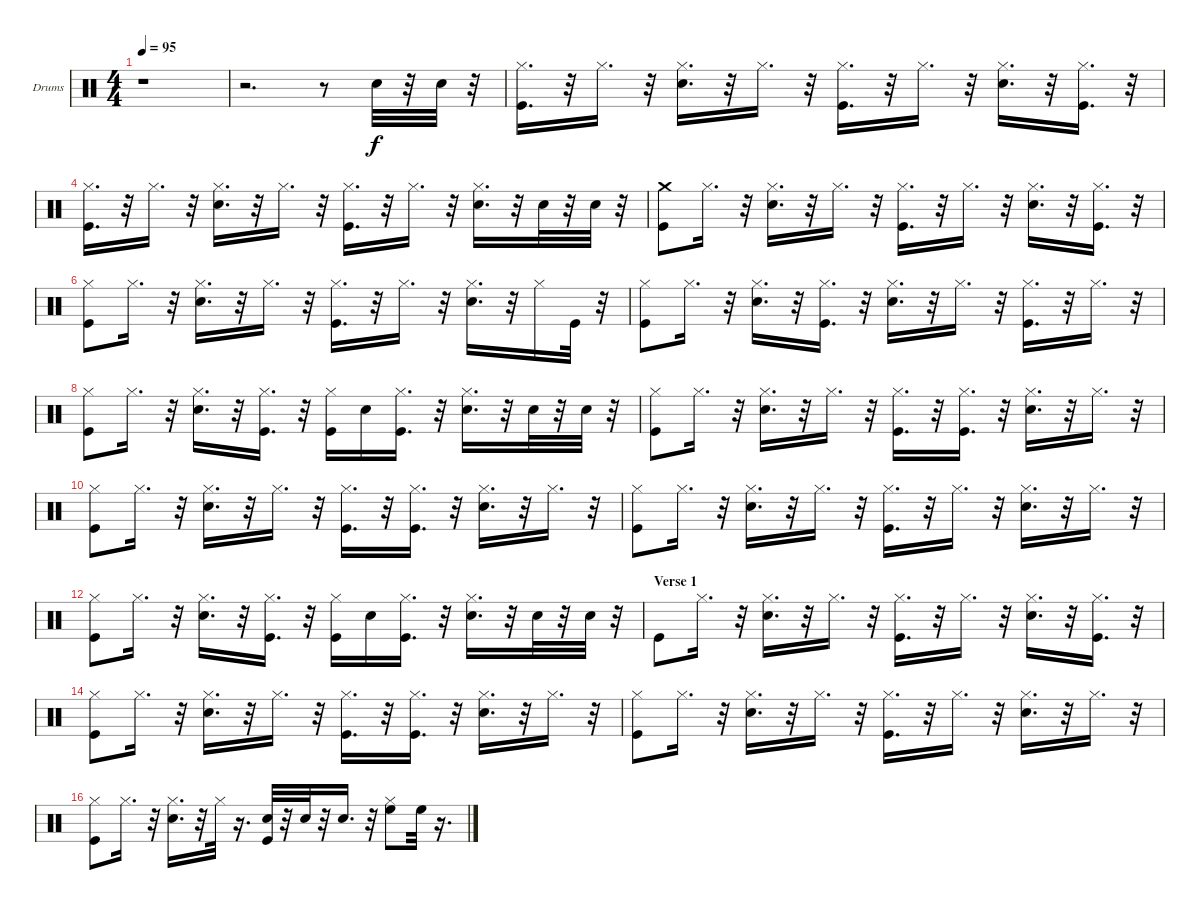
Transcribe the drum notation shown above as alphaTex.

\bracketExtendMode nobrackets
\firstSystemTrackNameOrientation horizontal
\otherSystemsTrackNameOrientation horizontal
\defaultBarNumberDisplay FirstOfSystem
\track ("Drumkit" "Drums") {instrument percussion}
\staff {score}
\articulation defaults
\ts (4 4)
\tempo 95
\clef neutral
\scale
0.417004
\ks c
r.1{dy f} |
\scale
0.582996 r.2{d} r.8 "Snare (hit) 2".32 r.32 "Snare (hit) 2".32 r.32 |
\scale
0.487085 ("Hi-Hat (closed)" "Kick (hit)").16{d} r.32 "Hi-Hat (closed)".16{d} r.32 ("Hi-Hat (closed)" "Snare (hit) 2").16{d} r.32 "Hi-Hat (closed)".16{d} r.32 ("Hi-Hat (closed)" "Kick (hit)").16{d} r.32 "Hi-Hat (closed)".16{d} r.32 ("Hi-Hat (closed)" "Snare (hit) 2").16{d} r.32 ("Hi-Hat (closed)" "Kick (hit)").16{d} r.32 |
\scale
0.512915 ("Hi-Hat (closed)" "Kick (hit)").16{d} r.32 "Hi-Hat (closed)".16{d} r.32 ("Hi-Hat (closed)" "Snare (hit) 2").16{d} r.32 "Hi-Hat (closed)".16{d} r.32 ("Hi-Hat (closed)" "Kick (hit)").16{d} r.32 "Hi-Hat (closed)".16{d} r.32 ("Hi-Hat (closed)" "Snare (hit) 2").16{d} r.32 "Snare (hit) 2".32 r.32 "Snare (hit) 2".32 r.32 |
\scale
0.493256 ("Kick (hit)" "Crash medium (hit)").8 "Hi-Hat (closed)".16{d} r.32 ("Hi-Hat (closed)" "Snare (hit) 2").16{d} r.32 "Hi-Hat (closed)".16{d} r.32 ("Hi-Hat (closed)" "Kick (hit)").16{d} r.32 "Hi-Hat (closed)".16{d} r.32 ("Hi-Hat (closed)" "Snare (hit) 2").16{d} r.32 ("Hi-Hat (closed)" "Kick (hit)").16{d} r.32 |
\scale
0.506744 ("Hi-Hat (closed)" "Kick (hit)").8 "Hi-Hat (closed)".16{d} r.32 ("Hi-Hat (closed)" "Snare (hit) 2").16{d} r.32 "Hi-Hat (closed)".16{d} r.32 ("Hi-Hat (closed)" "Kick (hit)").16{d} r.32 "Hi-Hat (closed)".16{d} r.32 ("Hi-Hat (closed)" "Snare (hit) 2").16{d} r.32 "Hi-Hat (closed)".16 "Kick (hit)".32 r.32 |
\scale
0.486692 ("Hi-Hat (closed)" "Kick (hit)").8 "Hi-Hat (closed)".16{d} r.32 ("Hi-Hat (closed)" "Snare (hit) 2").16{d} r.32 ("Hi-Hat (closed)" "Kick (hit)").16{d} r.32 ("Hi-Hat (closed)" "Snare (hit) 2").16{d} r.32 "Hi-Hat (closed)".16{d} r.32 ("Hi-Hat (closed)" "Kick (hit)").16{d} r.32 "Hi-Hat (closed)".16{d} r.32 |
\scale
0.513308 ("Hi-Hat (closed)" "Kick (hit)").8 "Hi-Hat (closed)".16{d} r.32 ("Hi-Hat (closed)" "Snare (hit) 2").16{d} r.32 ("Hi-Hat (closed)" "Kick (hit)").16{d} r.32 ("Hi-Hat (closed)" "Kick (hit)").16 "Snare (hit) 2".16 ("Hi-Hat (closed)" "Kick (hit)").16{d} r.32 ("Snare (hit) 2" "Hi-Hat (closed)").16{d} r.32 "Snare (hit) 2".32 r.32 "Snare (hit) 2".32 r.32 |
\scale
0.5 ("Hi-Hat (closed)" "Kick (hit)").8 "Hi-Hat (closed)".16{d} r.32 ("Hi-Hat (closed)" "Snare (hit) 2").16{d} r.32 "Hi-Hat (closed)".16{d} r.32 ("Hi-Hat (closed)" "Kick (hit)").16{d} r.32 ("Hi-Hat (closed)" "Kick (hit)").16{d} r.32 ("Hi-Hat (closed)" "Snare (hit) 2").16{d} r.32 "Hi-Hat (closed)".16{d} r.32 |
\scale
0.5 ("Hi-Hat (closed)" "Kick (hit)").8 "Hi-Hat (closed)".16{d} r.32 ("Hi-Hat (closed)" "Snare (hit) 2").16{d} r.32 "Hi-Hat (closed)".16{d} r.32 ("Hi-Hat (closed)" "Kick (hit)").16{d} r.32 ("Hi-Hat (closed)" "Kick (hit)").16{d} r.32 ("Hi-Hat (closed)" "Snare (hit) 2").16{d} r.32 "Hi-Hat (closed)".16{d} r.32 |
\scale
0.486692 ("Hi-Hat (closed)" "Kick (hit)").8 "Hi-Hat (closed)".16{d} r.32 ("Hi-Hat (closed)" "Snare (hit) 2").16{d} r.32 "Hi-Hat (closed)".16{d} r.32 ("Hi-Hat (closed)" "Kick (hit)").16{d} r.32 "Hi-Hat (closed)".16{d} r.32 ("Hi-Hat (closed)" "Snare (hit) 2").16{d} r.32 "Hi-Hat (closed)".16{d} r.32 |
\scale
0.513308 ("Hi-Hat (closed)" "Kick (hit)").8 "Hi-Hat (closed)".16{d} r.32 ("Hi-Hat (closed)" "Snare (hit) 2").16{d} r.32 ("Hi-Hat (closed)" "Kick (hit)").16{d} r.32 ("Hi-Hat (closed)" "Kick (hit)").16 "Snare (hit) 2".16 ("Hi-Hat (closed)" "Kick (hit)").16{d} r.32 ("Snare (hit) 2" "Hi-Hat (closed)").16{d} r.32 "Snare (hit) 2".32 r.32 "Snare (hit) 2".32 r.32 |
\section ("" "Verse 1")
\scale
0.5 "Kick (hit)".8 "Hi-Hat (closed)".16{d} r.32 ("Hi-Hat (closed)" "Snare (hit) 2").16{d} r.32 "Hi-Hat (closed)".16{d} r.32 ("Hi-Hat (closed)" "Kick (hit)").16{d} r.32 "Hi-Hat (closed)".16{d} r.32 ("Hi-Hat (closed)" "Snare (hit) 2").16{d} r.32 ("Hi-Hat (closed)" "Kick (hit)").16{d} r.32 |
\scale
0.5 ("Hi-Hat (closed)" "Kick (hit)").8 "Hi-Hat (closed)".16{d} r.32 ("Hi-Hat (closed)" "Snare (hit) 2").16{d} r.32 "Hi-Hat (closed)".16{d} r.32 ("Hi-Hat (closed)" "Kick (hit)").16{d} r.32 ("Hi-Hat (closed)" "Kick (hit)").16{d} r.32 ("Hi-Hat (closed)" "Snare (hit) 2").16{d} r.32 "Hi-Hat (closed)".16{d} r.32 |
\scale
0.494208 ("Hi-Hat (closed)" "Kick (hit)").8 "Hi-Hat (closed)".16{d} r.32 ("Hi-Hat (closed)" "Snare (hit) 2").16{d} r.32 "Hi-Hat (closed)".16{d} r.32 ("Hi-Hat (closed)" "Kick (hit)").16{d} r.32 "Hi-Hat (closed)".16{d} r.32 ("Hi-Hat (closed)" "Snare (hit) 2").16{d} r.32 "Hi-Hat (closed)".16{d} r.32 |
\scale
0.505792 ("Hi-Hat (closed)" "Kick (hit)").8 "Hi-Hat (closed)".16{d} r.32 ("Hi-Hat (closed)" "Snare (hit) 2").16{d} r.32 "Hi-Hat (closed)".32 r.16{d} ("Snare (hit) 2" "Kick (hit)").32 r.32 "Snare (hit) 2".32 r.32 "Snare (hit) 2".16{d} r.32 ("Hi-Hat (closed)" "High Floor Tom (hit)").8 "High Floor Tom (hit)".32 r.16{d}
